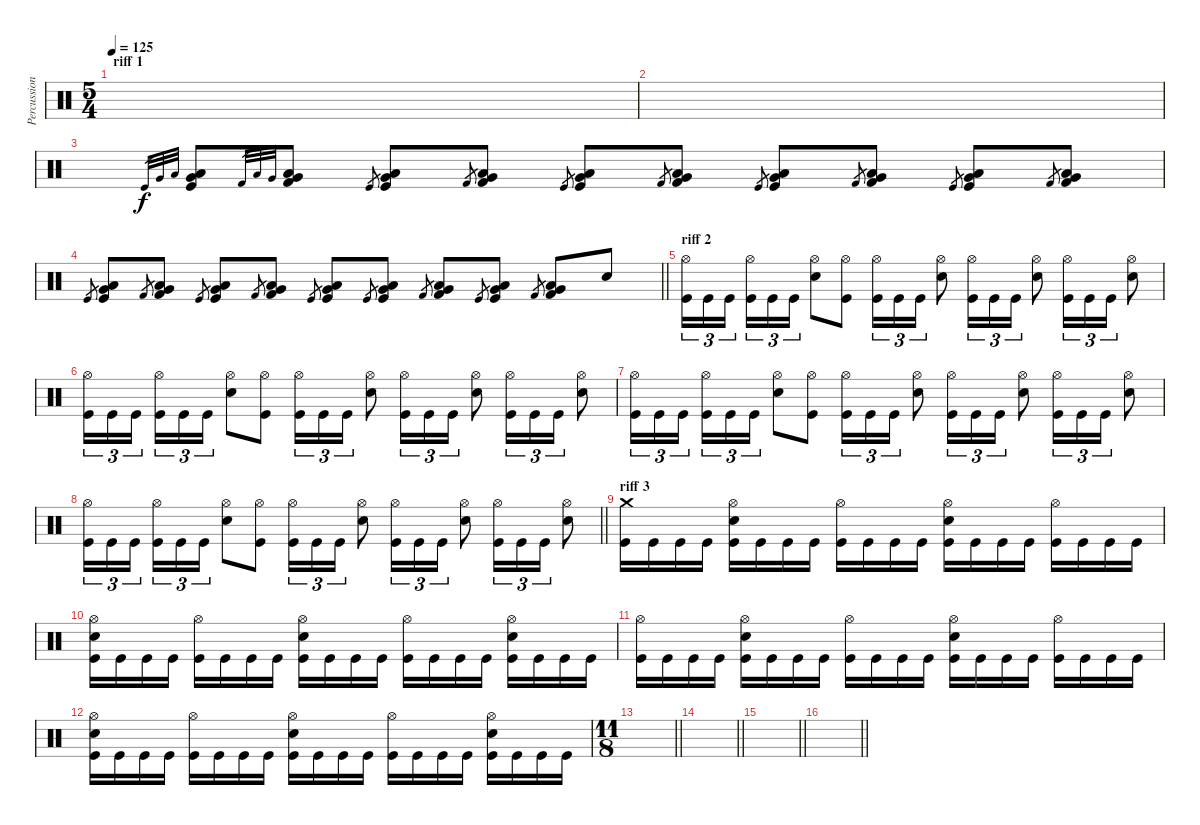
\track ("Percussion" "Percussion") {instrument percussion}
\staff {score}
\articulation defaults
\ts (5 4)
\section ("" "riff 1")
\tempo 125
\clef neutral
\ks c
|
|
"Kick (hit)".32{gr} "Very Low Tom (hit)".32{gr} "Low Tom (hit)".32{gr} ("Kick (hit)" "Very Low Tom (hit)" "Low Tom (hit)").8{volume 13} "Kick (hit) 2".32{gr} "Low Floor Tom (hit)".32{gr} "Very Low Tom (hit)".32{gr} ("Kick (hit) 2" "Low Floor Tom (hit)" "Very Low Tom (hit)").8 "Kick (hit)".8{gr} ("Kick (hit)" "Very Low Tom (hit)" "Low Tom (hit)").8 "Kick (hit) 2".8{gr} ("Kick (hit) 2" "Low Floor Tom (hit)" "Very Low Tom (hit)").8 "Kick (hit)".8{gr} ("Kick (hit)" "Very Low Tom (hit)" "Low Tom (hit)").8 "Kick (hit) 2".8{gr} ("Kick (hit) 2" "Low Floor Tom (hit)" "Very Low Tom (hit)").8 "Kick (hit)".8{gr} ("Kick (hit)" "Very Low Tom (hit)" "Low Tom (hit)").8 "Kick (hit) 2".8{gr} ("Kick (hit) 2" "Low Floor Tom (hit)" "Very Low Tom (hit)").8 "Kick (hit)".8{gr} ("Kick (hit)" "Very Low Tom (hit)" "Low Tom (hit)").8 "Kick (hit) 2".8{gr} ("Kick (hit) 2" "Low Floor Tom (hit)" "Very Low Tom (hit)").8 |
\barLineRight lightlight "Kick (hit)".8{gr}
("Kick (hit)" "Very Low Tom (hit)" "Low Tom (hit)").8 "Kick (hit) 2".8{gr} ("Kick (hit) 2" "Low Floor Tom (hit)" "Very Low Tom (hit)").8 "Kick (hit)".8{gr} ("Kick (hit)" "Very Low Tom (hit)" "Low Tom (hit)").8 "Kick (hit) 2".8{gr} ("Kick (hit) 2" "Low Floor Tom (hit)" "Very Low Tom (hit)").8 "Kick (hit)".8{gr} ("Kick (hit)" "Very Low Tom (hit)" "Low Tom (hit)").8 "Kick (hit)".8{gr} ("Kick (hit)" "Very Low Tom (hit)" "Low Tom (hit)").8 "Kick (hit) 2".8{gr} ("Kick (hit) 2" "Low Floor Tom (hit)" "Very Low Tom (hit)").8 "Kick (hit)".8{gr} ("Kick (hit)" "Very Low Tom (hit)" "Low Tom (hit)").8 "Kick (hit) 2".8{gr} ("Kick (hit) 2" "Low Floor Tom (hit)" "Very Low Tom (hit)").8 "Electric Snare (hit)".8 |
\section ("" "riff 2")
("Kick (hit)" "Hi-Hat (open)").16{tu (3 2)} "Kick (hit)".16{tu (3 2)} "Kick (hit)".16{tu (3 2) beam splitsecondary} ("Kick (hit)" "Hi-Hat (open)").16{tu (3 2)} "Kick (hit)".16{tu (3 2)} "Kick (hit)".16{tu (3 2)} ("Hi-Hat (open)" "Electric Snare (hit)").8 ("Kick (hit)" "Hi-Hat (open)").8 ("Kick (hit)" "Hi-Hat (open)").16{tu (3 2)} "Kick (hit)".16{tu (3 2)} "Kick (hit)".16{tu (3 2)} ("Hi-Hat (open)" "Electric Snare (hit)").8 ("Kick (hit)" "Hi-Hat (open)").16{tu (3 2)} "Kick (hit)".16{tu (3 2)} "Kick (hit)".16{tu (3 2)} ("Hi-Hat (open)" "Electric Snare (hit)").8 ("Kick (hit)" "Hi-Hat (open)").16{tu (3 2)} "Kick (hit)".16{tu (3 2)} "Kick (hit)".16{tu (3 2)} ("Hi-Hat (open)" "Electric Snare (hit)").8 |
("Kick (hit)" "Hi-Hat (open)").16{tu (3 2)} "Kick (hit)".16{tu (3 2)} "Kick (hit)".16{tu (3 2) beam splitsecondary} ("Kick (hit)" "Hi-Hat (open)").16{tu (3 2)} "Kick (hit)".16{tu (3 2)} "Kick (hit)".16{tu (3 2)} ("Hi-Hat (open)" "Electric Snare (hit)").8 ("Kick (hit)" "Hi-Hat (open)").8 ("Kick (hit)" "Hi-Hat (open)").16{tu (3 2)} "Kick (hit)".16{tu (3 2)} "Kick (hit)".16{tu (3 2)} ("Hi-Hat (open)" "Electric Snare (hit)").8 ("Kick (hit)" "Hi-Hat (open)").16{tu (3 2)} "Kick (hit)".16{tu (3 2)} "Kick (hit)".16{tu (3 2)} ("Hi-Hat (open)" "Electric Snare (hit)").8 ("Kick (hit)" "Hi-Hat (open)").16{tu (3 2)} "Kick (hit)".16{tu (3 2)} "Kick (hit)".16{tu (3 2)} ("Hi-Hat (open)" "Electric Snare (hit)").8 |
("Kick (hit)" "Hi-Hat (open)").16{tu (3 2)} "Kick (hit)".16{tu (3 2)} "Kick (hit)".16{tu (3 2) beam splitsecondary} ("Kick (hit)" "Hi-Hat (open)").16{tu (3 2)} "Kick (hit)".16{tu (3 2)} "Kick (hit)".16{tu (3 2)} ("Hi-Hat (open)" "Electric Snare (hit)").8 ("Kick (hit)" "Hi-Hat (open)").8 ("Kick (hit)" "Hi-Hat (open)").16{tu (3 2)} "Kick (hit)".16{tu (3 2)} "Kick (hit)".16{tu (3 2)} ("Hi-Hat (open)" "Electric Snare (hit)").8 ("Kick (hit)" "Hi-Hat (open)").16{tu (3 2)} "Kick (hit)".16{tu (3 2)} "Kick (hit)".16{tu (3 2)} ("Hi-Hat (open)" "Electric Snare (hit)").8 ("Kick (hit)" "Hi-Hat (open)").16{tu (3 2)} "Kick (hit)".16{tu (3 2)} "Kick (hit)".16{tu (3 2)} ("Hi-Hat (open)" "Electric Snare (hit)").8 |
\barLineRight lightlight
("Kick (hit)" "Hi-Hat (open)").16{tu (3 2)} "Kick (hit)".16{tu (3 2)} "Kick (hit)".16{tu (3 2) beam splitsecondary} ("Kick (hit)" "Hi-Hat (open)").16{tu (3 2)} "Kick (hit)".16{tu (3 2)} "Kick (hit)".16{tu (3 2)} ("Hi-Hat (open)" "Electric Snare (hit)").8 ("Kick (hit)" "Hi-Hat (open)").8 ("Kick (hit)" "Hi-Hat (open)").16{tu (3 2)} "Kick (hit)".16{tu (3 2)} "Kick (hit)".16{tu (3 2)} ("Hi-Hat (open)" "Electric Snare (hit)").8 ("Kick (hit)" "Hi-Hat (open)").16{tu (3 2)} "Kick (hit)".16{tu (3 2)} "Kick (hit)".16{tu (3 2)} ("Hi-Hat (open)" "Electric Snare (hit)").8 ("Kick (hit)" "Hi-Hat (open)").16{tu (3 2)} "Kick (hit)".16{tu (3 2)} "Kick (hit)".16{tu (3 2)} ("Hi-Hat (open)" "Electric Snare (hit)").8 |
\section ("" "riff 3")
("Kick (hit)" "Crash medium (hit)").16 "Kick (hit)".16 "Kick (hit)".16 "Kick (hit)".16 ("Kick (hit)" "Hi-Hat (open)" "Electric Snare (hit)").16 "Kick (hit)".16 "Kick (hit)".16 "Kick (hit)".16 ("Kick (hit)" "Hi-Hat (open)").16 "Kick (hit)".16 "Kick (hit)".16 "Kick (hit)".16 ("Kick (hit)" "Hi-Hat (open)" "Electric Snare (hit)").16 "Kick (hit)".16 "Kick (hit)".16 "Kick (hit)".16 ("Kick (hit)" "Hi-Hat (open)").16 "Kick (hit)".16 "Kick (hit)".16 "Kick (hit)".16 |
("Kick (hit)" "Hi-Hat (open)" "Electric Snare (hit)").16 "Kick (hit)".16 "Kick (hit)".16 "Kick (hit)".16 ("Kick (hit)" "Hi-Hat (open)").16 "Kick (hit)".16 "Kick (hit)".16 "Kick (hit)".16 ("Kick (hit)" "Hi-Hat (open)" "Electric Snare (hit)").16 "Kick (hit)".16 "Kick (hit)".16 "Kick (hit)".16 ("Kick (hit)" "Hi-Hat (open)").16 "Kick (hit)".16 "Kick (hit)".16 "Kick (hit)".16 ("Kick (hit)" "Hi-Hat (open)" "Electric Snare (hit)").16 "Kick (hit)".16 "Kick (hit)".16 "Kick (hit)".16 |
("Kick (hit)" "Hi-Hat (open)").16 "Kick (hit)".16 "Kick (hit)".16 "Kick (hit)".16 ("Kick (hit)" "Hi-Hat (open)" "Electric Snare (hit)").16 "Kick (hit)".16 "Kick (hit)".16 "Kick (hit)".16 ("Kick (hit)" "Hi-Hat (open)").16 "Kick (hit)".16 "Kick (hit)".16 "Kick (hit)".16 ("Kick (hit)" "Hi-Hat (open)" "Electric Snare (hit)").16 "Kick (hit)".16 "Kick (hit)".16 "Kick (hit)".16 ("Kick (hit)" "Hi-Hat (open)").16 "Kick (hit)".16 "Kick (hit)".16 "Kick (hit)".16 |
("Kick (hit)" "Hi-Hat (open)" "Electric Snare (hit)").16 "Kick (hit)".16 "Kick (hit)".16 "Kick (hit)".16 ("Kick (hit)" "Hi-Hat (open)").16 "Kick (hit)".16 "Kick (hit)".16 "Kick (hit)".16 ("Kick (hit)" "Hi-Hat (open)" "Electric Snare (hit)").16 "Kick (hit)".16 "Kick (hit)".16 "Kick (hit)".16 ("Kick (hit)" "Hi-Hat (open)").16 "Kick (hit)".16 "Kick (hit)".16 "Kick (hit)".16 ("Kick (hit)" "Hi-Hat (open)" "Electric Snare (hit)").16 "Kick (hit)".16 "Kick (hit)".16 "Kick (hit)".16 |
\ts (11 8)
\barLineRight lightlight
|
\barLineRight lightlight
|
\barLineRight lightlight
|
\barLineRight lightlight
